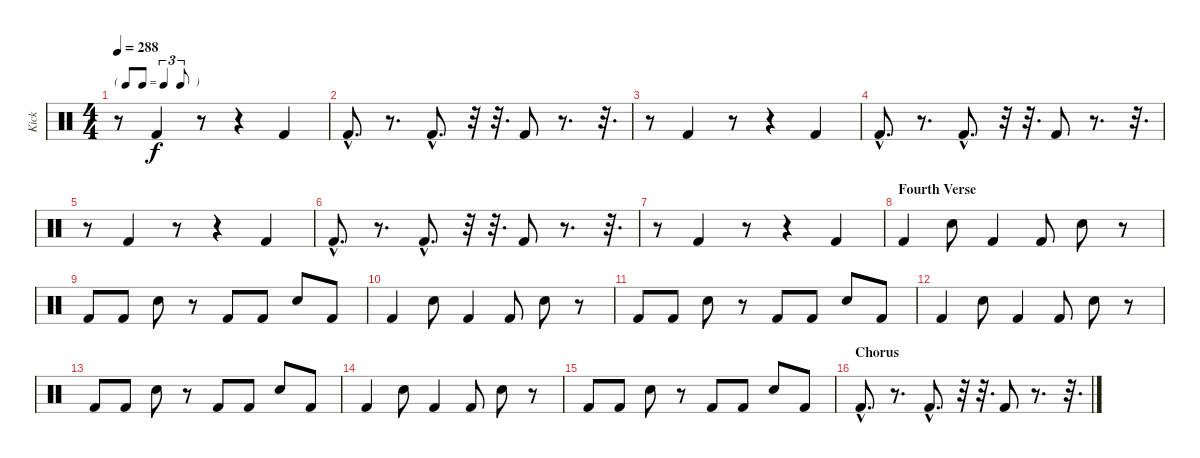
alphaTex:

\track ("Kick" "Kick") {instrument percussion}
\staff {score}
\articulation defaults
\ts (4 4)
\tf triplet8th
\tempo 288
\clef neutral
\ks c
r.8{dy f} "Kick (hit) 2".4 r.8 r.4 "Kick (hit) 2".4 |
"Kick (hit) 2"{hac}.8{d} r.8{d} "Kick (hit) 2"{hac}.8{d} r.32 r.32{d} "Kick (hit) 2".8 r.8{d} r.32{d} |
r.8 "Kick (hit) 2".4 r.8 r.4 "Kick (hit) 2".4 |
"Kick (hit) 2"{hac}.8{d} r.8{d} "Kick (hit) 2"{hac}.8{d} r.32 r.32{d} "Kick (hit) 2".8 r.8{d} r.32{d} |
r.8 "Kick (hit) 2".4 r.8 r.4 "Kick (hit) 2".4 |
"Kick (hit) 2"{hac}.8{d} r.8{d} "Kick (hit) 2"{hac}.8{d} r.32 r.32{d} "Kick (hit) 2".8 r.8{d} r.32{d} |
r.8 "Kick (hit) 2".4 r.8 r.4 "Kick (hit) 2".4 |
\section ("" "Fourth Verse")
"Kick (hit) 2".4 "Snare (hit) 2".8 "Kick (hit) 2".4 "Kick (hit) 2".8 "Snare (hit) 2".8 r.8 |
"Kick (hit) 2".8 "Kick (hit) 2".8 "Snare (hit) 2".8 r.8 "Kick (hit) 2".8 "Kick (hit) 2".8 "Snare (hit) 2".8 "Kick (hit) 2".8 |
"Kick (hit) 2".4 "Snare (hit) 2".8 "Kick (hit) 2".4 "Kick (hit) 2".8 "Snare (hit) 2".8 r.8 |
"Kick (hit) 2".8 "Kick (hit) 2".8 "Snare (hit) 2".8 r.8 "Kick (hit) 2".8 "Kick (hit) 2".8 "Snare (hit) 2".8 "Kick (hit) 2".8 |
"Kick (hit) 2".4 "Snare (hit) 2".8 "Kick (hit) 2".4 "Kick (hit) 2".8 "Snare (hit) 2".8 r.8 |
"Kick (hit) 2".8 "Kick (hit) 2".8 "Snare (hit) 2".8 r.8 "Kick (hit) 2".8 "Kick (hit) 2".8 "Snare (hit) 2".8 "Kick (hit) 2".8 |
"Kick (hit) 2".4 "Snare (hit) 2".8 "Kick (hit) 2".4 "Kick (hit) 2".8 "Snare (hit) 2".8 r.8 |
"Kick (hit) 2".8 "Kick (hit) 2".8 "Snare (hit) 2".8 r.8 "Kick (hit) 2".8 "Kick (hit) 2".8 "Snare (hit) 2".8 "Kick (hit) 2".8 |
\section ("" "Chorus")
"Kick (hit) 2"{hac}.8{d} r.8{d} "Kick (hit) 2"{hac}.8{d} r.32 r.32{d} "Kick (hit) 2".8 r.8{d} r.32{d}
